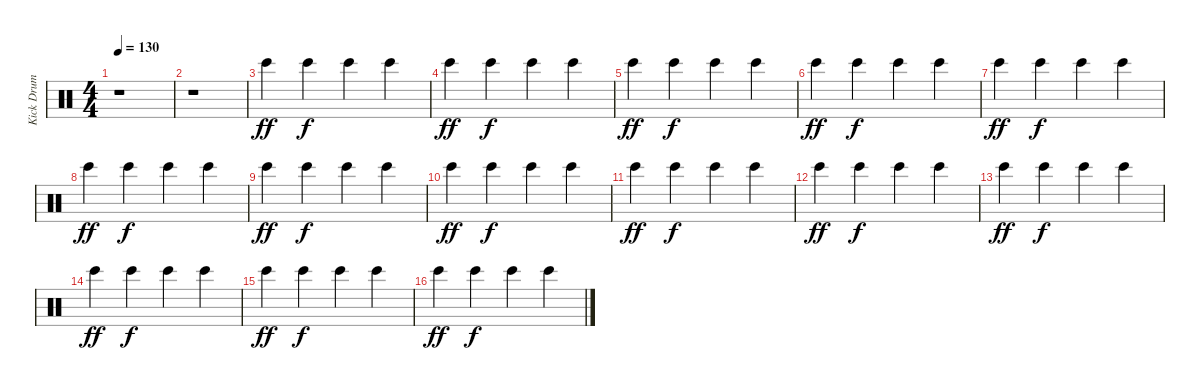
\track ("Kick Drum" "Kick Drum") {instrument percussion}
\staff {score}
\articulation defaults
\ts (4 4)
\tempo 130
\clef neutral
\ks c
r.1{dy ff} |
r.1 |
"Bongo High (hit)".4 "Bongo High (hit)".4{dy f} "Bongo High (hit)".4 "Bongo High (hit)".4 |
"Bongo High (hit)".4{dy ff} "Bongo High (hit)".4{dy f} "Bongo High (hit)".4 "Bongo High (hit)".4 |
"Bongo High (hit)".4{dy ff} "Bongo High (hit)".4{dy f} "Bongo High (hit)".4 "Bongo High (hit)".4 |
"Bongo High (hit)".4{dy ff} "Bongo High (hit)".4{dy f} "Bongo High (hit)".4 "Bongo High (hit)".4 |
"Bongo High (hit)".4{dy ff} "Bongo High (hit)".4{dy f} "Bongo High (hit)".4 "Bongo High (hit)".4 |
"Bongo High (hit)".4{dy ff} "Bongo High (hit)".4{dy f} "Bongo High (hit)".4 "Bongo High (hit)".4 |
"Bongo High (hit)".4{dy ff} "Bongo High (hit)".4{dy f} "Bongo High (hit)".4 "Bongo High (hit)".4 |
"Bongo High (hit)".4{dy ff} "Bongo High (hit)".4{dy f} "Bongo High (hit)".4 "Bongo High (hit)".4 |
"Bongo High (hit)".4{dy ff} "Bongo High (hit)".4{dy f} "Bongo High (hit)".4 "Bongo High (hit)".4 |
"Bongo High (hit)".4{dy ff} "Bongo High (hit)".4{dy f} "Bongo High (hit)".4 "Bongo High (hit)".4 |
"Bongo High (hit)".4{dy ff} "Bongo High (hit)".4{dy f} "Bongo High (hit)".4 "Bongo High (hit)".4 |
"Bongo High (hit)".4{dy ff} "Bongo High (hit)".4{dy f} "Bongo High (hit)".4 "Bongo High (hit)".4 |
"Bongo High (hit)".4{dy ff} "Bongo High (hit)".4{dy f} "Bongo High (hit)".4 "Bongo High (hit)".4 |
"Bongo High (hit)".4{dy ff} "Bongo High (hit)".4{dy f} "Bongo High (hit)".4 "Bongo High (hit)".4
